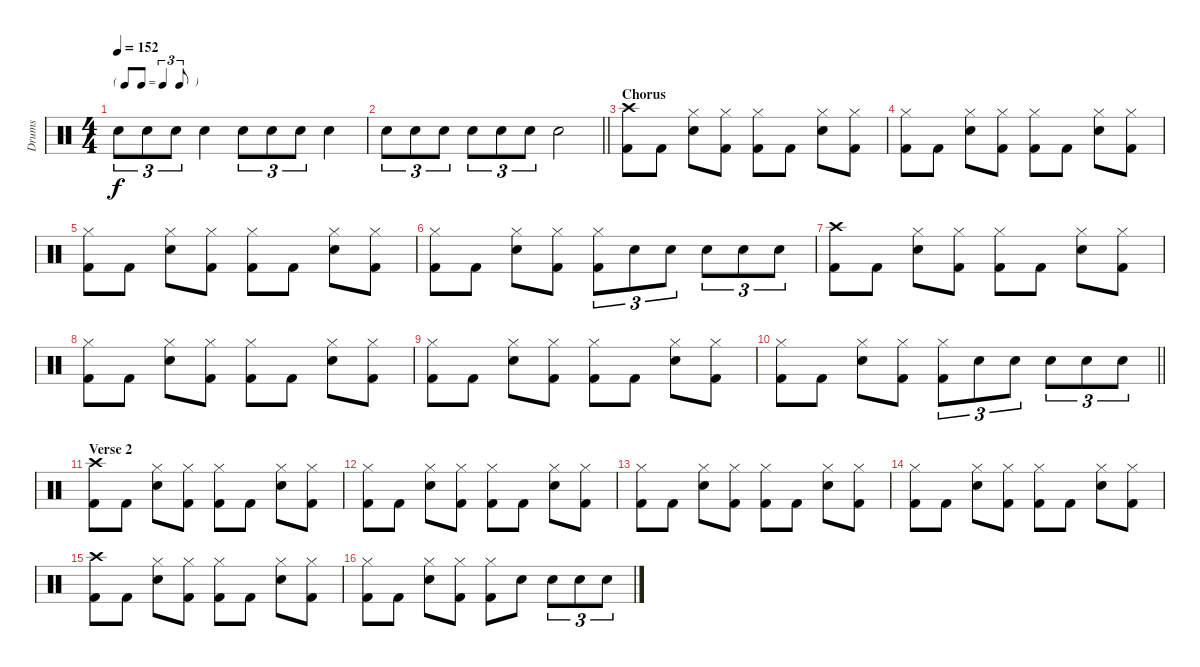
\track ("Drums" "Drums") {instrument percussion}
\staff {score}
\articulation defaults
\ts (4 4)
\tf triplet8th
\tempo 152
\clef neutral
\ks c "Snare (hit) 2".8{tu (3 2) dy f} "Snare (hit) 2".8{tu (3 2)} "Snare (hit) 2".8{tu (3 2)} "Snare (hit) 2".4 "Snare (hit) 2".8{tu (3 2)} "Snare (hit) 2".8{tu (3 2)} "Snare (hit) 2".8{tu (3 2)} "Snare (hit) 2".4
|
\barLineRight lightlight "Snare (hit) 2".8{tu (3 2)} "Snare (hit) 2".8{tu (3 2)} "Snare (hit) 2".8{tu (3 2)} "Snare (hit) 2".8{tu (3 2)} "Snare (hit) 2".8{tu (3 2)} "Snare (hit) 2".8{tu (3 2)} "Snare (hit) 2".2
|
\section ("" "Chorus")
("Crash high (hit)" "Kick (hit) 2").8 "Kick (hit) 2".8 ("Hi-Hat (closed)" "Snare (hit) 2").8 ("Hi-Hat (closed)" "Kick (hit) 2").8 ("Hi-Hat (closed)" "Kick (hit) 2").8 "Kick (hit) 2".8 ("Hi-Hat (closed)" "Snare (hit) 2").8 ("Hi-Hat (closed)" "Kick (hit) 2").8 |
("Hi-Hat (closed)" "Kick (hit) 2").8 "Kick (hit) 2".8 ("Hi-Hat (closed)" "Snare (hit) 2").8 ("Hi-Hat (closed)" "Kick (hit) 2").8 ("Hi-Hat (closed)" "Kick (hit) 2").8 "Kick (hit) 2".8 ("Hi-Hat (closed)" "Snare (hit) 2").8 ("Hi-Hat (closed)" "Kick (hit) 2").8 |
("Hi-Hat (closed)" "Kick (hit) 2").8 "Kick (hit) 2".8 ("Hi-Hat (closed)" "Snare (hit) 2").8 ("Hi-Hat (closed)" "Kick (hit) 2").8 ("Hi-Hat (closed)" "Kick (hit) 2").8 "Kick (hit) 2".8 ("Hi-Hat (closed)" "Snare (hit) 2").8 ("Hi-Hat (closed)" "Kick (hit) 2").8 |
("Hi-Hat (closed)" "Kick (hit) 2").8 "Kick (hit) 2".8 ("Hi-Hat (closed)" "Snare (hit) 2").8 ("Hi-Hat (closed)" "Kick (hit) 2").8 ("Hi-Hat (closed)" "Kick (hit) 2").8{tu (3 2)} "Snare (hit) 2".8{tu (3 2)} "Snare (hit) 2".8{tu (3 2)} "Snare (hit) 2".8{tu (3 2)} "Snare (hit) 2".8{tu (3 2)} "Snare (hit) 2".8{tu (3 2)} |
("Crash high (hit)" "Kick (hit) 2").8 "Kick (hit) 2".8 ("Hi-Hat (closed)" "Snare (hit) 2").8 ("Hi-Hat (closed)" "Kick (hit) 2").8 ("Hi-Hat (closed)" "Kick (hit) 2").8 "Kick (hit) 2".8 ("Hi-Hat (closed)" "Snare (hit) 2").8 ("Hi-Hat (closed)" "Kick (hit) 2").8 |
("Hi-Hat (closed)" "Kick (hit) 2").8 "Kick (hit) 2".8 ("Hi-Hat (closed)" "Snare (hit) 2").8 ("Hi-Hat (closed)" "Kick (hit) 2").8 ("Hi-Hat (closed)" "Kick (hit) 2").8 "Kick (hit) 2".8 ("Hi-Hat (closed)" "Snare (hit) 2").8 ("Hi-Hat (closed)" "Kick (hit) 2").8 |
("Hi-Hat (closed)" "Kick (hit) 2").8 "Kick (hit) 2".8 ("Hi-Hat (closed)" "Snare (hit) 2").8 ("Hi-Hat (closed)" "Kick (hit) 2").8 ("Hi-Hat (closed)" "Kick (hit) 2").8 "Kick (hit) 2".8 ("Hi-Hat (closed)" "Snare (hit) 2").8 ("Hi-Hat (closed)" "Kick (hit) 2").8 |
\barLineRight lightlight
("Hi-Hat (closed)" "Kick (hit) 2").8 "Kick (hit) 2".8 ("Hi-Hat (closed)" "Snare (hit) 2").8 ("Hi-Hat (closed)" "Kick (hit) 2").8 ("Hi-Hat (closed)" "Kick (hit) 2").8{tu (3 2)} "Snare (hit) 2".8{tu (3 2)} "Snare (hit) 2".8{tu (3 2)} "Snare (hit) 2".8{tu (3 2)} "Snare (hit) 2".8{tu (3 2)} "Snare (hit) 2".8{tu (3 2)} |
\section ("" "Verse 2")
("Crash high (hit)" "Kick (hit) 2").8 "Kick (hit) 2".8 ("Hi-Hat (closed)" "Snare (hit) 2").8 ("Hi-Hat (closed)" "Kick (hit) 2").8 ("Hi-Hat (closed)" "Kick (hit) 2").8 "Kick (hit) 2".8 ("Hi-Hat (closed)" "Snare (hit) 2").8 ("Hi-Hat (closed)" "Kick (hit) 2").8 |
("Hi-Hat (closed)" "Kick (hit) 2").8 "Kick (hit) 2".8 ("Hi-Hat (closed)" "Snare (hit) 2").8 ("Hi-Hat (closed)" "Kick (hit) 2").8 ("Hi-Hat (closed)" "Kick (hit) 2").8 "Kick (hit) 2".8 ("Hi-Hat (closed)" "Snare (hit) 2").8 ("Hi-Hat (closed)" "Kick (hit) 2").8 |
("Hi-Hat (closed)" "Kick (hit) 2").8 "Kick (hit) 2".8 ("Hi-Hat (closed)" "Snare (hit) 2").8 ("Hi-Hat (closed)" "Kick (hit) 2").8 ("Hi-Hat (closed)" "Kick (hit) 2").8 "Kick (hit) 2".8 ("Hi-Hat (closed)" "Snare (hit) 2").8 ("Hi-Hat (closed)" "Kick (hit) 2").8 |
("Hi-Hat (closed)" "Kick (hit) 2").8 "Kick (hit) 2".8 ("Hi-Hat (closed)" "Snare (hit) 2").8 ("Hi-Hat (closed)" "Kick (hit) 2").8 ("Hi-Hat (closed)" "Kick (hit) 2").8 "Kick (hit) 2".8 ("Hi-Hat (closed)" "Snare (hit) 2").8 ("Hi-Hat (closed)" "Kick (hit) 2").8 |
("Crash high (hit)" "Kick (hit) 2").8 "Kick (hit) 2".8 ("Hi-Hat (closed)" "Snare (hit) 2").8 ("Hi-Hat (closed)" "Kick (hit) 2").8 ("Hi-Hat (closed)" "Kick (hit) 2").8 "Kick (hit) 2".8 ("Hi-Hat (closed)" "Snare (hit) 2").8 ("Hi-Hat (closed)" "Kick (hit) 2").8 |
("Hi-Hat (closed)" "Kick (hit) 2").8 "Kick (hit) 2".8 ("Hi-Hat (closed)" "Snare (hit) 2").8 ("Hi-Hat (closed)" "Kick (hit) 2").8 ("Hi-Hat (closed)" "Kick (hit) 2").8 "Snare (hit) 2".8 "Snare (hit) 2".8{tu (3 2)} "Snare (hit) 2".8{tu (3 2)} "Snare (hit) 2".8{tu (3 2)}
